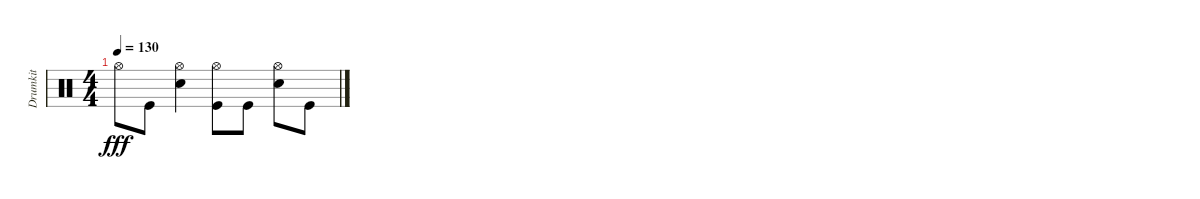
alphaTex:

\track ("Drumkit" "Drumkit") {instrument percussion}
\staff {score}
\articulation defaults
\ts (4 4)
\tempo 130
\clef neutral
\ks c "Hi-Hat (open)".8{dy fff} "Kick (hit)".8
("Hi-Hat (open)" "Snare (hit) 2").4 ("Hi-Hat (open)" "Kick (hit)").8 "Kick (hit)".8 ("Hi-Hat (open)" "Snare (hit) 2").8 "Kick (hit)".8
